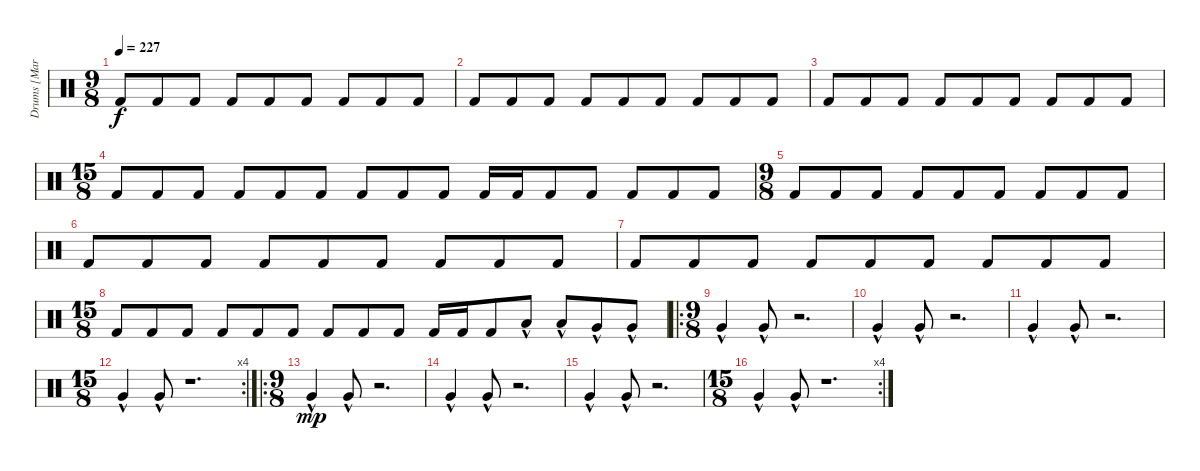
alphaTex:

\track ("Drums [Martin Lopez]" "Drums [Mar") {instrument percussion}
\staff {score}
\articulation defaults
\ts (9 8)
\tempo 227
\clef neutral
\ks c "Kick (hit) 2".8{dy f} "Kick (hit) 2".8 "Kick (hit) 2".8 "Kick (hit) 2".8 "Kick (hit) 2".8 "Kick (hit) 2".8 "Kick (hit) 2".8 "Kick (hit) 2".8 "Kick (hit) 2".8
|
"Kick (hit) 2".8 "Kick (hit) 2".8 "Kick (hit) 2".8 "Kick (hit) 2".8 "Kick (hit) 2".8 "Kick (hit) 2".8 "Kick (hit) 2".8 "Kick (hit) 2".8 "Kick (hit) 2".8 |
"Kick (hit) 2".8 "Kick (hit) 2".8 "Kick (hit) 2".8 "Kick (hit) 2".8 "Kick (hit) 2".8 "Kick (hit) 2".8 "Kick (hit) 2".8 "Kick (hit) 2".8 "Kick (hit) 2".8 |
\ts (15 8)
"Kick (hit) 2".8 "Kick (hit) 2".8 "Kick (hit) 2".8 "Kick (hit) 2".8 "Kick (hit) 2".8 "Kick (hit) 2".8 "Kick (hit) 2".8 "Kick (hit) 2".8 "Kick (hit) 2".8 "Kick (hit) 2".16 "Kick (hit) 2".16 "Kick (hit) 2".8 "Kick (hit) 2".8 "Kick (hit) 2".8 "Kick (hit) 2".8 "Kick (hit) 2".8 |
\ts (9 8)
"Kick (hit) 2".8 "Kick (hit) 2".8 "Kick (hit) 2".8 "Kick (hit) 2".8 "Kick (hit) 2".8 "Kick (hit) 2".8 "Kick (hit) 2".8 "Kick (hit) 2".8 "Kick (hit) 2".8 |
"Kick (hit) 2".8 "Kick (hit) 2".8 "Kick (hit) 2".8 "Kick (hit) 2".8 "Kick (hit) 2".8 "Kick (hit) 2".8 "Kick (hit) 2".8 "Kick (hit) 2".8 "Kick (hit) 2".8 |
"Kick (hit) 2".8 "Kick (hit) 2".8 "Kick (hit) 2".8 "Kick (hit) 2".8 "Kick (hit) 2".8 "Kick (hit) 2".8 "Kick (hit) 2".8 "Kick (hit) 2".8 "Kick (hit) 2".8 |
\ts (15 8)
"Kick (hit) 2".8 "Kick (hit) 2".8 "Kick (hit) 2".8 "Kick (hit) 2".8 "Kick (hit) 2".8 "Kick (hit) 2".8 "Kick (hit) 2".8 "Kick (hit) 2".8 "Kick (hit) 2".8 "Kick (hit) 2".16 "Kick (hit) 2".16 "Kick (hit) 2".8 "Low Tom (hit)"{hac}.8 "Low Tom (hit)"{hac}.8 "Very Low Tom (hit)"{hac}.8 "Very Low Tom (hit)"{hac}.8 |
\ro
\ts (9 8)
"Very Low Tom (hit)"{hac}.4 "Very Low Tom (hit)"{hac}.8 r.2{d} |
"Very Low Tom (hit)"{hac}.4 "Very Low Tom (hit)"{hac}.8 r.2{d} |
"Very Low Tom (hit)"{hac}.4 "Very Low Tom (hit)"{hac}.8 r.2{d} |
\rc 4
\ts (15 8)
"Very Low Tom (hit)"{hac}.4 "Very Low Tom (hit)"{hac}.8 r.1{d} |
\ro
\ts (9 8)
"Very Low Tom (hit)"{hac}.4{dy mp} "Very Low Tom (hit)"{hac}.8 r.2{d} |
"Very Low Tom (hit)"{hac}.4 "Very Low Tom (hit)"{hac}.8 r.2{d} |
"Very Low Tom (hit)"{hac}.4 "Very Low Tom (hit)"{hac}.8 r.2{d} |
\rc 4
\ts (15 8)
"Very Low Tom (hit)"{hac}.4 "Very Low Tom (hit)"{hac}.8 r.1{d}
